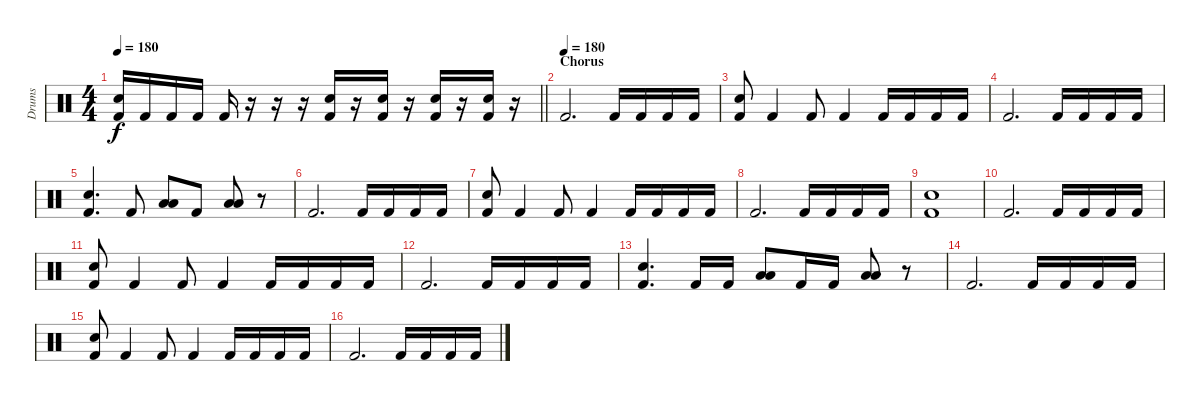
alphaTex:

\track ("Drums" "Drums") {instrument percussion}
\staff {score}
\articulation defaults
\ts (4 4)
\tempo 180
\clef neutral
\barLineRight lightlight
\ks c
("Electric Snare (hit)" "Kick (hit) 2").16{dy f} "Kick (hit) 2".16 "Kick (hit) 2".16 "Kick (hit) 2".16 "Kick (hit) 2".16 r.16 r.16 r.16 ("Electric Snare (hit)" "Kick (hit) 2").16 r.16 ("Electric Snare (hit)" "Kick (hit) 2").16 r.16 ("Electric Snare (hit)" "Kick (hit) 2").16 r.16 ("Electric Snare (hit)" "Kick (hit) 2").16 r.16 |
\section ("" "Chorus")
\tempo (180)
"Kick (hit) 2".2{d} "Kick (hit) 2".16 "Kick (hit) 2".16 "Kick (hit) 2".16 "Kick (hit) 2".16 |
("Electric Snare (hit)" "Kick (hit) 2").8 "Kick (hit) 2".4 "Kick (hit) 2".8 "Kick (hit) 2".4 "Kick (hit) 2".16 "Kick (hit) 2".16 "Kick (hit) 2".16 "Kick (hit) 2".16 |
"Kick (hit) 2".2{d} "Kick (hit) 2".16 "Kick (hit) 2".16 "Kick (hit) 2".16 "Kick (hit) 2".16 |
("Electric Snare (hit)" "Kick (hit) 2").4{d} "Kick (hit) 2".8 ("Low Tom (hit)" "Low Tom (hit)").8 "Kick (hit) 2".8 ("Low Floor Tom (hit)" "Low Floor Tom (hit)").8 r.8 |
"Kick (hit) 2".2{d} "Kick (hit) 2".16 "Kick (hit) 2".16 "Kick (hit) 2".16 "Kick (hit) 2".16 |
("Electric Snare (hit)" "Kick (hit) 2").8 "Kick (hit) 2".4 "Kick (hit) 2".8 "Kick (hit) 2".4 "Kick (hit) 2".16 "Kick (hit) 2".16 "Kick (hit) 2".16 "Kick (hit) 2".16 |
"Kick (hit) 2".2{d} "Kick (hit) 2".16 "Kick (hit) 2".16 "Kick (hit) 2".16 "Kick (hit) 2".16 |
("Electric Snare (hit)" "Kick (hit) 2").1 |
"Kick (hit) 2".2{d} "Kick (hit) 2".16 "Kick (hit) 2".16 "Kick (hit) 2".16 "Kick (hit) 2".16 |
("Electric Snare (hit)" "Kick (hit) 2").8 "Kick (hit) 2".4 "Kick (hit) 2".8 "Kick (hit) 2".4 "Kick (hit) 2".16 "Kick (hit) 2".16 "Kick (hit) 2".16 "Kick (hit) 2".16 |
"Kick (hit) 2".2{d} "Kick (hit) 2".16 "Kick (hit) 2".16 "Kick (hit) 2".16 "Kick (hit) 2".16 |
("Electric Snare (hit)" "Kick (hit) 2").4{d} "Kick (hit) 2".16 "Kick (hit) 2".16 ("Low Tom (hit)" "Low Tom (hit)").8 "Kick (hit) 2".16 "Kick (hit) 2".16 ("Low Floor Tom (hit)" "Low Floor Tom (hit)").8 r.8 |
"Kick (hit) 2".2{d} "Kick (hit) 2".16 "Kick (hit) 2".16 "Kick (hit) 2".16 "Kick (hit) 2".16 |
("Electric Snare (hit)" "Kick (hit) 2").8 "Kick (hit) 2".4 "Kick (hit) 2".8 "Kick (hit) 2".4 "Kick (hit) 2".16 "Kick (hit) 2".16 "Kick (hit) 2".16 "Kick (hit) 2".16 |
"Kick (hit) 2".2{d} "Kick (hit) 2".16 "Kick (hit) 2".16 "Kick (hit) 2".16 "Kick (hit) 2".16
